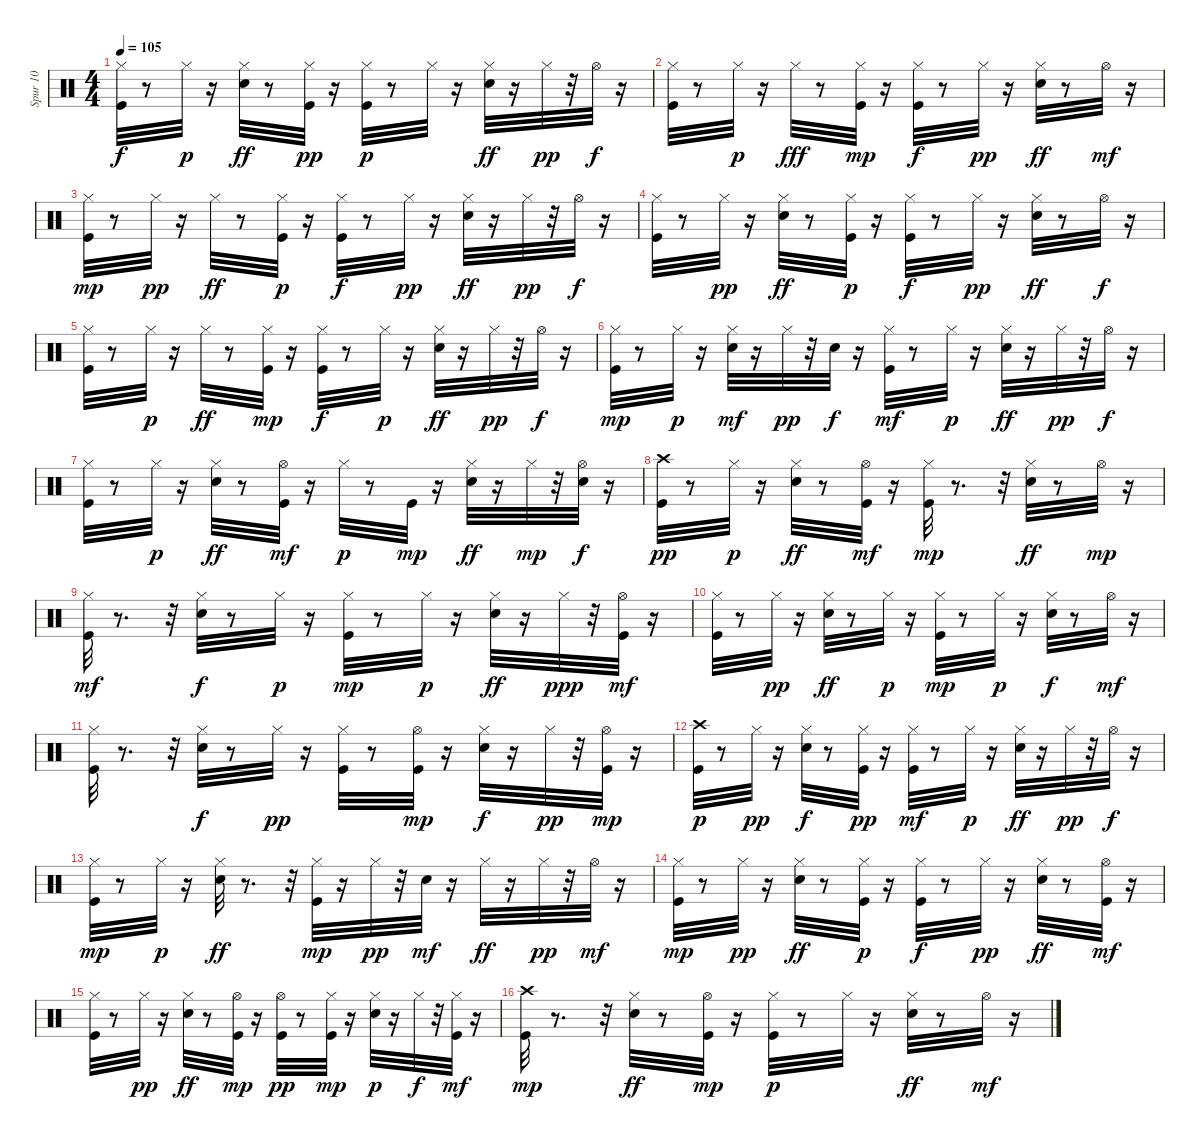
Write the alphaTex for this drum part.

\track ("Spur 10" "Spur 10") {instrument percussion}
\staff {score}
\articulation defaults
\ts (4 4)
\tempo 105
\clef neutral
\ks c
("Kick (hit)" "Hi-Hat (closed)").32{dy f} r.8 "Hi-Hat (closed)".32{dy p} r.16 ("Snare (hit) 2" "Hi-Hat (closed)").32{dy ff} r.8 ("Kick (hit)" "Hi-Hat (closed)").32{dy pp} r.16 ("Kick (hit)" "Hi-Hat (closed)").32{dy p} r.8 "Hi-Hat (closed)".32 r.16 ("Snare (hit) 2" "Hi-Hat (closed)").32{dy ff} r.16 "Hi-Hat (closed)".32{dy pp} r.32 "Hi-Hat (open)".32{dy f} r.16 |
("Kick (hit)" "Hi-Hat (closed)").32 r.8 "Hi-Hat (closed)".32{dy p} r.16 "Hi-Hat (closed)".32{dy fff} r.8 ("Kick (hit)" "Hi-Hat (closed)").32{dy mp} r.16 ("Kick (hit)" "Hi-Hat (closed)").32{dy f} r.8 "Hi-Hat (closed)".32{dy pp} r.16 ("Snare (hit) 2" "Hi-Hat (closed)").32{dy ff} r.8 "Hi-Hat (open)".32{dy mf} r.16 |
("Kick (hit)" "Hi-Hat (closed)").32{dy mp} r.8 "Hi-Hat (closed)".32{dy pp} r.16 "Hi-Hat (closed)".32{dy ff} r.8 ("Kick (hit)" "Hi-Hat (closed)").32{dy p} r.16 ("Kick (hit)" "Hi-Hat (closed)").32{dy f} r.8 "Hi-Hat (closed)".32{dy pp} r.16 ("Snare (hit) 2" "Hi-Hat (closed)").32{dy ff} r.16 "Hi-Hat (closed)".32{dy pp} r.32 "Hi-Hat (open)".32{dy f} r.16 |
("Kick (hit)" "Hi-Hat (closed)").32 r.8 "Hi-Hat (closed)".32{dy pp} r.16 ("Snare (hit) 2" "Hi-Hat (closed)").32{dy ff} r.8 ("Kick (hit)" "Hi-Hat (closed)").32{dy p} r.16 ("Kick (hit)" "Hi-Hat (closed)").32{dy f} r.8 "Hi-Hat (closed)".32{dy pp} r.16 ("Snare (hit) 2" "Hi-Hat (closed)").32{dy ff} r.8 "Hi-Hat (open)".32{dy f} r.16 |
("Kick (hit)" "Hi-Hat (closed)").32 r.8 "Hi-Hat (closed)".32{dy p} r.16 "Hi-Hat (closed)".32{dy ff} r.8 ("Kick (hit)" "Hi-Hat (closed)").32{dy mp} r.16 ("Kick (hit)" "Hi-Hat (closed)").32{dy f} r.8 "Hi-Hat (closed)".32{dy p} r.16 ("Snare (hit) 2" "Hi-Hat (closed)").32{dy ff} r.16 "Hi-Hat (closed)".32{dy pp} r.32 "Hi-Hat (open)".32{dy f} r.16 |
("Kick (hit)" "Hi-Hat (closed)").32{dy mp} r.8 "Hi-Hat (closed)".32{dy p} r.16 ("Snare (hit) 2" "Hi-Hat (closed)").32{dy mf} r.16 "Hi-Hat (closed)".32{dy pp} r.32 "Electric Snare (hit)".32{dy f} r.16 ("Kick (hit)" "Hi-Hat (closed)").32{dy mf} r.8 "Hi-Hat (closed)".32{dy p} r.16 ("Snare (hit) 2" "Hi-Hat (closed)").32{dy ff} r.16 "Hi-Hat (closed)".32{dy pp} r.32 "Hi-Hat (open)".32{dy f} r.16 |
("Kick (hit)" "Hi-Hat (closed)").32 r.8 "Hi-Hat (closed)".32{dy p} r.16 ("Snare (hit) 2" "Hi-Hat (closed)").32{dy ff} r.8 ("Kick (hit)" "Hi-Hat (open)").32{dy mf} r.16 "Hi-Hat (closed)".32{dy p} r.8 "Kick (hit)".32{dy mp} r.16 ("Snare (hit) 2" "Hi-Hat (closed)").32{dy ff} r.16 "Hi-Hat (closed)".32{dy mp} r.32 ("Snare (hit) 2" "Hi-Hat (open)").32{dy f} r.16 |
("Kick (hit)" "Crash high (hit)").32{dy pp} r.8 "Hi-Hat (closed)".32{dy p} r.16 ("Snare (hit) 2" "Hi-Hat (closed)").32{dy ff} r.8 ("Kick (hit)" "Hi-Hat (open)").32{dy mf} r.16 ("Kick (hit)" "Hi-Hat (closed)").32{dy mp} r.8{d} r.32 ("Snare (hit) 2" "Hi-Hat (closed)").32{dy ff} r.8 "Hi-Hat (open)".32{dy mp} r.16 |
("Kick (hit)" "Hi-Hat (closed)").32{dy mf} r.8{d} r.32 ("Snare (hit) 2" "Hi-Hat (closed)").32{dy f} r.8 "Hi-Hat (closed)".32{dy p} r.16 ("Kick (hit)" "Hi-Hat (closed)").32{dy mp} r.8 "Hi-Hat (closed)".32{dy p} r.16 ("Snare (hit) 2" "Hi-Hat (closed)").32{dy ff} r.16 "Hi-Hat (closed)".32{dy ppp} r.32 ("Kick (hit)" "Hi-Hat (open)").32{dy mf} r.16 |
("Kick (hit)" "Hi-Hat (closed)").32 r.8 "Hi-Hat (closed)".32{dy pp} r.16 ("Snare (hit) 2" "Hi-Hat (closed)").32{dy ff} r.8 "Hi-Hat (closed)".32{dy p} r.16 ("Kick (hit)" "Hi-Hat (closed)").32{dy mp} r.8 "Hi-Hat (closed)".32{dy p} r.16 ("Snare (hit) 2" "Hi-Hat (closed)").32{dy f} r.8 "Hi-Hat (open)".32{dy mf} r.16 |
("Kick (hit)" "Hi-Hat (closed)").32 r.8{d} r.32 ("Snare (hit) 2" "Hi-Hat (closed)").32{dy f} r.8 "Hi-Hat (closed)".32{dy pp} r.16 ("Kick (hit)" "Hi-Hat (closed)").32 r.8 ("Kick (hit)" "Hi-Hat (open)").32{dy mp} r.16 ("Snare (hit) 2" "Hi-Hat (closed)").32{dy f} r.16 "Hi-Hat (closed)".32{dy pp} r.32 ("Kick (hit)" "Hi-Hat (open)").32{dy mp} r.16 |
("Kick (hit)" "Crash high (hit)").32{dy p} r.8 "Hi-Hat (closed)".32{dy pp} r.16 ("Snare (hit) 2" "Hi-Hat (closed)").32{dy f} r.8 ("Kick (hit)" "Hi-Hat (closed)").32{dy pp} r.16 ("Kick (hit)" "Hi-Hat (closed)").32{dy mf} r.8 "Hi-Hat (closed)".32{dy p} r.16 ("Snare (hit) 2" "Hi-Hat (closed)").32{dy ff} r.16 "Hi-Hat (closed)".32{dy pp} r.32 "Hi-Hat (open)".32{dy f} r.16 |
("Kick (hit)" "Hi-Hat (closed)").32{dy mp} r.8 "Hi-Hat (closed)".32{dy p} r.16 ("Snare (hit) 2" "Hi-Hat (closed)").32{dy ff} r.8{d} r.32 ("Kick (hit)" "Hi-Hat (closed)").32{dy mp} r.16 "Hi-Hat (closed)".32{dy pp} r.32 "Snare (hit) 2".32{dy mf} r.16 "Hi-Hat (closed)".32{dy ff} r.16 "Hi-Hat (closed)".32{dy pp} r.32 "Hi-Hat (open)".32{dy mf} r.16 |
("Kick (hit)" "Hi-Hat (closed)").32{dy mp} r.8 "Hi-Hat (closed)".32{dy pp} r.16 ("Snare (hit) 2" "Hi-Hat (closed)").32{dy ff} r.8 ("Kick (hit)" "Hi-Hat (closed)").32{dy p} r.16 ("Kick (hit)" "Hi-Hat (closed)").32{dy f} r.8 "Hi-Hat (closed)".32{dy pp} r.16 ("Snare (hit) 2" "Hi-Hat (closed)").32{dy ff} r.8 ("Kick (hit)" "Hi-Hat (open)").32{dy mf} r.16 |
("Kick (hit)" "Hi-Hat (closed)").32 r.8 "Hi-Hat (closed)".32{dy pp} r.16 ("Snare (hit) 2" "Hi-Hat (closed)").32{dy ff} r.8 ("Kick (hit)" "Hi-Hat (open)").32{dy mp} r.16 ("Kick (hit)" "Hi-Hat (open)").32{dy pp} r.8 ("Kick (hit)" "Hi-Hat (closed)").32{dy mp} r.16 ("Snare (hit) 2" "Hi-Hat (closed)").32{dy p} r.16 "Hi-Hat (closed)".32{dy f} r.32 ("Kick (hit)" "Hi-Hat (closed)").32{dy mf} r.16 |
("Kick (hit)" "Crash high (hit)").32{dy mp} r.8{d} r.32 ("Snare (hit) 2" "Hi-Hat (closed)").32{dy ff} r.8 ("Kick (hit)" "Hi-Hat (open)").32{dy mp} r.16 ("Kick (hit)" "Hi-Hat (closed)").32{dy p} r.8 "Hi-Hat (closed)".32 r.16 ("Snare (hit) 2" "Hi-Hat (closed)").32{dy ff} r.8 "Hi-Hat (open)".32{dy mf} r.16
